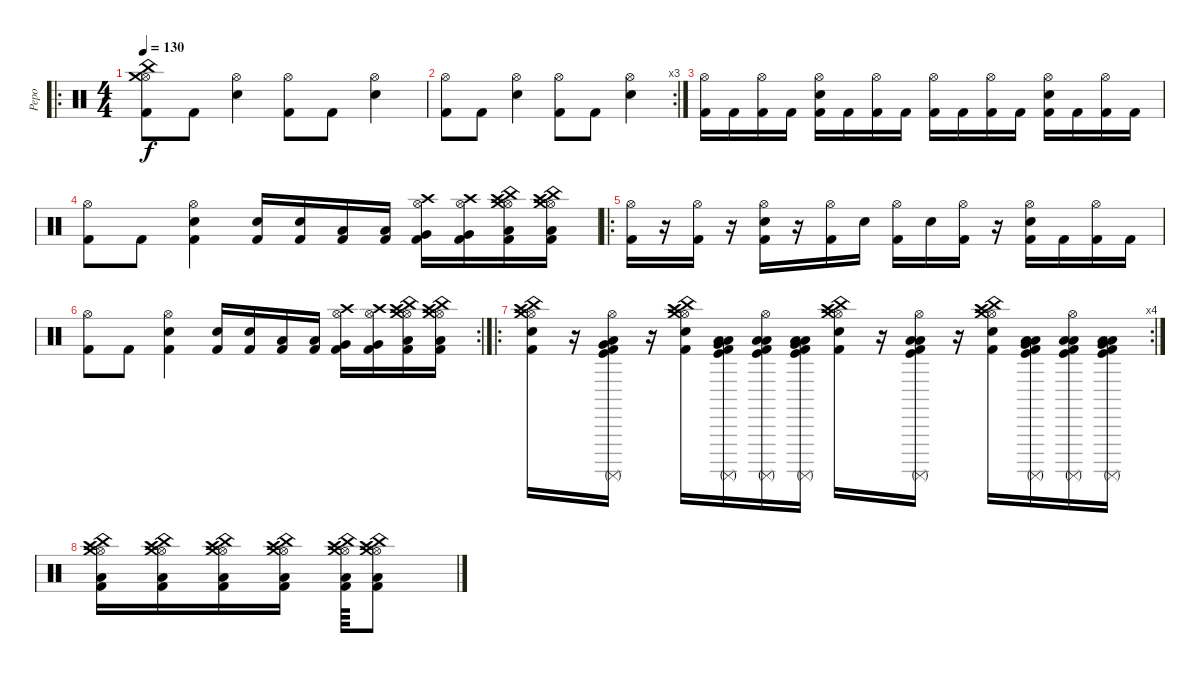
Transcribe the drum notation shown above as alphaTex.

\track ("Pepo" "Pepo") {instrument percussion}
\staff {score}
\articulation defaults
\ro
\ts (4 4)
\tempo 130
\clef neutral
\ks c
("Hi-Hat (open)" "China (hit)" "Crash medium (hit)" "Kick (hit) 2").8{dy f} "Kick (hit) 2".8 ("Hi-Hat (open)" "Electric Snare (hit)").4 ("Hi-Hat (open)" "Kick (hit) 2").8 "Kick (hit) 2".8 ("Hi-Hat (open)" "Electric Snare (hit)").4 |
\rc 3
("Hi-Hat (open)" "Kick (hit) 2").8 "Kick (hit) 2".8 ("Hi-Hat (open)" "Electric Snare (hit)").4 ("Hi-Hat (open)" "Kick (hit) 2").8 "Kick (hit) 2".8 ("Hi-Hat (open)" "Electric Snare (hit)").4 |
("Hi-Hat (open)" "Kick (hit) 2").16 "Kick (hit) 2".16 ("Hi-Hat (open)" "Kick (hit) 2").16 "Kick (hit) 2".16 ("Hi-Hat (open)" "Electric Snare (hit)" "Kick (hit) 2").16 "Kick (hit) 2".16 ("Hi-Hat (open)" "Kick (hit) 2").16 "Kick (hit) 2".16 ("Hi-Hat (open)" "Kick (hit) 2").16 "Kick (hit) 2".16 ("Hi-Hat (open)" "Kick (hit) 2").16 "Kick (hit) 2".16 ("Hi-Hat (open)" "Electric Snare (hit)" "Kick (hit) 2").16 "Kick (hit) 2".16 ("Hi-Hat (open)" "Kick (hit) 2").16 "Kick (hit) 2".16 |
("Hi-Hat (open)" "Kick (hit) 2").8 "Kick (hit) 2".8 ("Hi-Hat (open)" "Electric Snare (hit)" "Kick (hit) 2").4 ("Electric Snare (hit)" "Kick (hit) 2").16 ("Electric Snare (hit)" "Kick (hit) 2").16 ("Low Tom (hit)" "Kick (hit) 2").16 ("Low Tom (hit)" "Kick (hit) 2").16 ("Hi-Hat (open)" "Crash high (hit)" "Very Low Tom (hit)" "Kick (hit) 2").16 ("Hi-Hat (open)" "Crash high (hit)" "Very Low Tom (hit)" "Kick (hit) 2").16 ("Hi-Hat (open)" "Crash high (hit)" "China (hit)" "Crash medium (hit)" "Low Floor Tom (hit)" "Kick (hit) 2").16 ("Hi-Hat (open)" "Crash high (hit)" "China (hit)" "Crash medium (hit)" "Low Floor Tom (hit)" "Kick (hit) 2").16 |
\ro
("Hi-Hat (open)" "Kick (hit) 2").16 r.16 ("Hi-Hat (open)" "Kick (hit) 2").16 r.16 ("Hi-Hat (open)" "Electric Snare (hit)" "Kick (hit) 2").16 r.16 ("Hi-Hat (open)" "Kick (hit) 2").16 "Electric Snare (hit)".16 ("Hi-Hat (open)" "Kick (hit) 2").16 "Electric Snare (hit)".16 ("Hi-Hat (open)" "Kick (hit) 2").16 r.16 ("Hi-Hat (open)" "Electric Snare (hit)" "Kick (hit) 2").16 "Kick (hit) 2".16 ("Hi-Hat (open)" "Kick (hit) 2").16 "Kick (hit) 2".16 |
\rc 2
("Hi-Hat (open)" "Kick (hit) 2").8 "Kick (hit) 2".8 ("Hi-Hat (open)" "Electric Snare (hit)" "Kick (hit) 2").4 ("Electric Snare (hit)" "Kick (hit) 2").16 ("Electric Snare (hit)" "Kick (hit) 2").16 ("Low Tom (hit)" "Kick (hit) 2").16 ("Low Tom (hit)" "Kick (hit) 2").16 ("Hi-Hat (open)" "Crash high (hit)" "Very Low Tom (hit)" "Kick (hit) 2").16 ("Hi-Hat (open)" "Crash high (hit)" "Very Low Tom (hit)" "Kick (hit) 2").16 ("Hi-Hat (open)" "Crash high (hit)" "China (hit)" "Crash medium (hit)" "Low Floor Tom (hit)" "Kick (hit) 2").16 ("Hi-Hat (open)" "Crash high (hit)" "China (hit)" "Crash medium (hit)" "Low Floor Tom (hit)" "Kick (hit) 2").16 |
\ro
\rc 4
("Hi-Hat (open)" "Crash high (hit)" "China (hit)" "Crash medium (hit)" "Electric Snare (hit)" "Kick (hit) 2").16 r.16 ("Hi-Hat (open)" "Very Low Tom (hit)" "Surdo (mute)" "Low Floor Tom (hit)" "Kick (hit)" "Kick (hit) 2").16 r.16 ("Hi-Hat (open)" "Crash high (hit)" "China (hit)" "Crash medium (hit)" "Electric Snare (hit)" "Kick (hit) 2").16 ("Very Low Tom (hit)" "Low Tom (hit)" "Surdo (mute)" "Low Floor Tom (hit)" "Kick (hit)" "Kick (hit) 2").16 ("Hi-Hat (open)" "Low Tom (hit)" "Surdo (mute)" "Low Floor Tom (hit)" "Kick (hit)" "Kick (hit) 2").16 ("Very Low Tom (hit)" "Low Tom (hit)" "Surdo (mute)" "Low Floor Tom (hit)" "Kick (hit)" "Kick (hit) 2").16 ("Hi-Hat (open)" "Crash high (hit)" "China (hit)" "Crash medium (hit)" "Electric Snare (hit)" "Kick (hit) 2").16 r.16 ("Hi-Hat (open)" "Low Tom (hit)" "Surdo (mute)" "Low Floor Tom (hit)" "Kick (hit)" "Kick (hit) 2").16 r.16 ("Hi-Hat (open)" "Crash high (hit)" "China (hit)" "Crash medium (hit)" "Electric Snare (hit)" "Kick (hit) 2").16 ("Very Low Tom (hit)" "Low Tom (hit)" "Surdo (mute)" "Low Floor Tom (hit)" "Kick (hit)" "Kick (hit) 2").16 ("Hi-Hat (open)" "Low Tom (hit)" "Surdo (mute)" "Low Floor Tom (hit)" "Kick (hit)" "Kick (hit) 2").16 ("Very Low Tom (hit)" "Low Tom (hit)" "Surdo (mute)" "Low Floor Tom (hit)" "Kick (hit)" "Kick (hit) 2").16 |
("Hi-Hat (open)" "Crash high (hit)" "China (hit)" "Crash medium (hit)" "Low Floor Tom (hit)" "Kick (hit) 2").16 ("Hi-Hat (open)" "Crash high (hit)" "China (hit)" "Crash medium (hit)" "Low Floor Tom (hit)" "Kick (hit) 2").16 ("Hi-Hat (open)" "Crash high (hit)" "China (hit)" "Crash medium (hit)" "Low Floor Tom (hit)" "Kick (hit) 2").16 ("Hi-Hat (open)" "Crash high (hit)" "China (hit)" "Crash medium (hit)" "Low Floor Tom (hit)" "Kick (hit) 2").16 ("Hi-Hat (open)" "Crash high (hit)" "China (hit)" "Crash medium (hit)" "Low Floor Tom (hit)" "Kick (hit) 2").64 ("Hi-Hat (open)" "Crash high (hit)" "China (hit)" "Crash medium (hit)" "Low Floor Tom (hit)" "Kick (hit) 2").8
